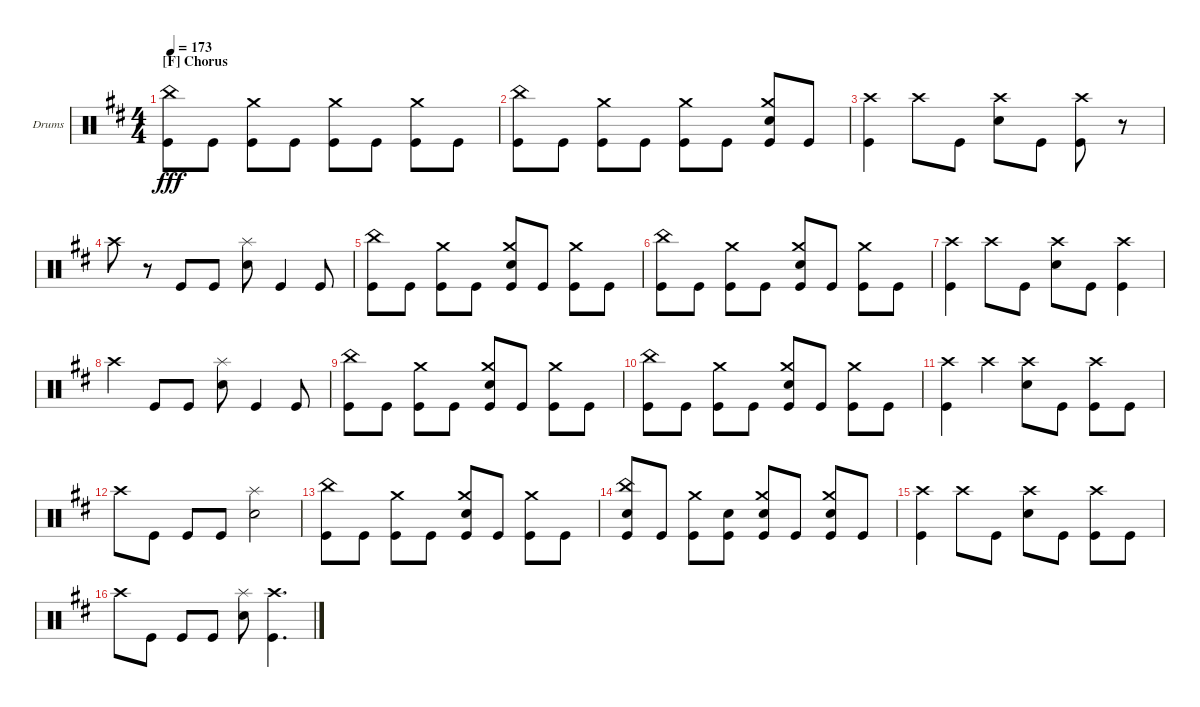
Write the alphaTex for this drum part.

\defaultSystemsLayout 4
\bracketExtendMode groupsimilarinstruments
\firstSystemTrackNameOrientation horizontal
\otherSystemsTrackNameOrientation horizontal
\track ("Drumkit" "Drums") {instrument percussion}
\staff {score}
\articulation defaults
\ts (4 4)
\section ("F" "Chorus")
\tempo 173
\clef neutral
\ks bminor
("Kick (hit)" "China (hit)").8{dy fff} "Kick (hit)".8 ("Kick (hit)" "Crash medium (hit)").8 "Kick (hit)".8 ("Kick (hit)" "Crash medium (hit)").8 "Kick (hit)".8 ("Kick (hit)" "Crash medium (hit)").8 "Kick (hit)".8 |
("Kick (hit)" "China (hit)").8 "Kick (hit)".8 ("Kick (hit)" "Crash medium (hit)").8 "Kick (hit)".8 ("Kick (hit)" "Crash medium (hit)").8 "Kick (hit)".8 ("Kick (hit)" "Crash medium (hit)" "Snare (hit) 2").8 "Kick (hit)".8 |
("Kick (hit)" "Crash high (hit)").4 "Crash high (hit)".8 "Kick (hit)".8 ("Crash high (hit)" "Snare (hit) 2").8 "Kick (hit)".8 ("Crash high (hit)" "Kick (hit)").8 r.8 |
"Crash high (hit)".8 r.8 "Kick (hit)".8 "Kick (hit)".8 ("Snare (hit) 2" "Splash (hit)").8 "Kick (hit)".4 "Kick (hit)".8 |
("Kick (hit)" "China (hit)").8 "Kick (hit)".8 ("Kick (hit)" "Crash medium (hit)").8 "Kick (hit)".8 ("Kick (hit)" "Crash medium (hit)" "Snare (hit) 2").8 "Kick (hit)".8 ("Kick (hit)" "Crash medium (hit)").8 "Kick (hit)".8 |
("Kick (hit)" "China (hit)").8 "Kick (hit)".8 ("Kick (hit)" "Crash medium (hit)").8 "Kick (hit)".8 ("Kick (hit)" "Crash medium (hit)" "Snare (hit) 2").8 "Kick (hit)".8 ("Kick (hit)" "Crash medium (hit)").8 "Kick (hit)".8 |
("Kick (hit)" "Crash high (hit)").4 "Crash high (hit)".8 "Kick (hit)".8 ("Crash high (hit)" "Snare (hit) 2").8 "Kick (hit)".8 ("Crash high (hit)" "Kick (hit)").4 |
"Crash high (hit)".4 "Kick (hit)".8 "Kick (hit)".8 ("Snare (hit) 2" "Splash (hit)").8 "Kick (hit)".4 "Kick (hit)".8 |
("Kick (hit)" "China (hit)").8 "Kick (hit)".8 ("Kick (hit)" "Crash medium (hit)").8 "Kick (hit)".8 ("Kick (hit)" "Crash medium (hit)" "Snare (hit) 2").8 "Kick (hit)".8 ("Kick (hit)" "Crash medium (hit)").8 "Kick (hit)".8 |
("Kick (hit)" "China (hit)").8 "Kick (hit)".8 ("Kick (hit)" "Crash medium (hit)").8 "Kick (hit)".8 ("Kick (hit)" "Crash medium (hit)" "Snare (hit) 2").8 "Kick (hit)".8 ("Kick (hit)" "Crash medium (hit)").8 "Kick (hit)".8 |
("Kick (hit)" "Crash high (hit)").4 "Crash high (hit)".4 ("Crash high (hit)" "Snare (hit) 2").8 "Kick (hit)".8 ("Crash high (hit)" "Kick (hit)").8 "Kick (hit)".8 |
"Crash high (hit)".8 "Kick (hit)".8 "Kick (hit)".8 "Kick (hit)".8 ("Snare (hit) 2" "Splash (hit)").2 |
("Kick (hit)" "China (hit)").8 "Kick (hit)".8 ("Kick (hit)" "Crash medium (hit)").8 "Kick (hit)".8 ("Kick (hit)" "Crash medium (hit)" "Snare (hit) 2").8 "Kick (hit)".8 ("Kick (hit)" "Crash medium (hit)").8 "Kick (hit)".8 |
("Kick (hit)" "China (hit)" "Snare (hit) 2").8 "Kick (hit)".8 ("Kick (hit)" "Crash medium (hit)").8 ("Kick (hit)" "Snare (hit) 2").8 ("Kick (hit)" "Crash medium (hit)" "Snare (hit) 2").8 "Kick (hit)".8 ("Kick (hit)" "Crash medium (hit)" "Snare (hit) 2").8 "Kick (hit)".8 |
("Kick (hit)" "Crash high (hit)").4 "Crash high (hit)".8 "Kick (hit)".8 ("Crash high (hit)" "Snare (hit) 2").8 "Kick (hit)".8 ("Crash high (hit)" "Kick (hit)").8 "Kick (hit)".8 |
"Crash high (hit)".8 "Kick (hit)".8 "Kick (hit)".8 "Kick (hit)".8 ("Snare (hit) 2" "Splash (hit)").8 ("Kick (hit)" "Crash high (hit)").4{d}
